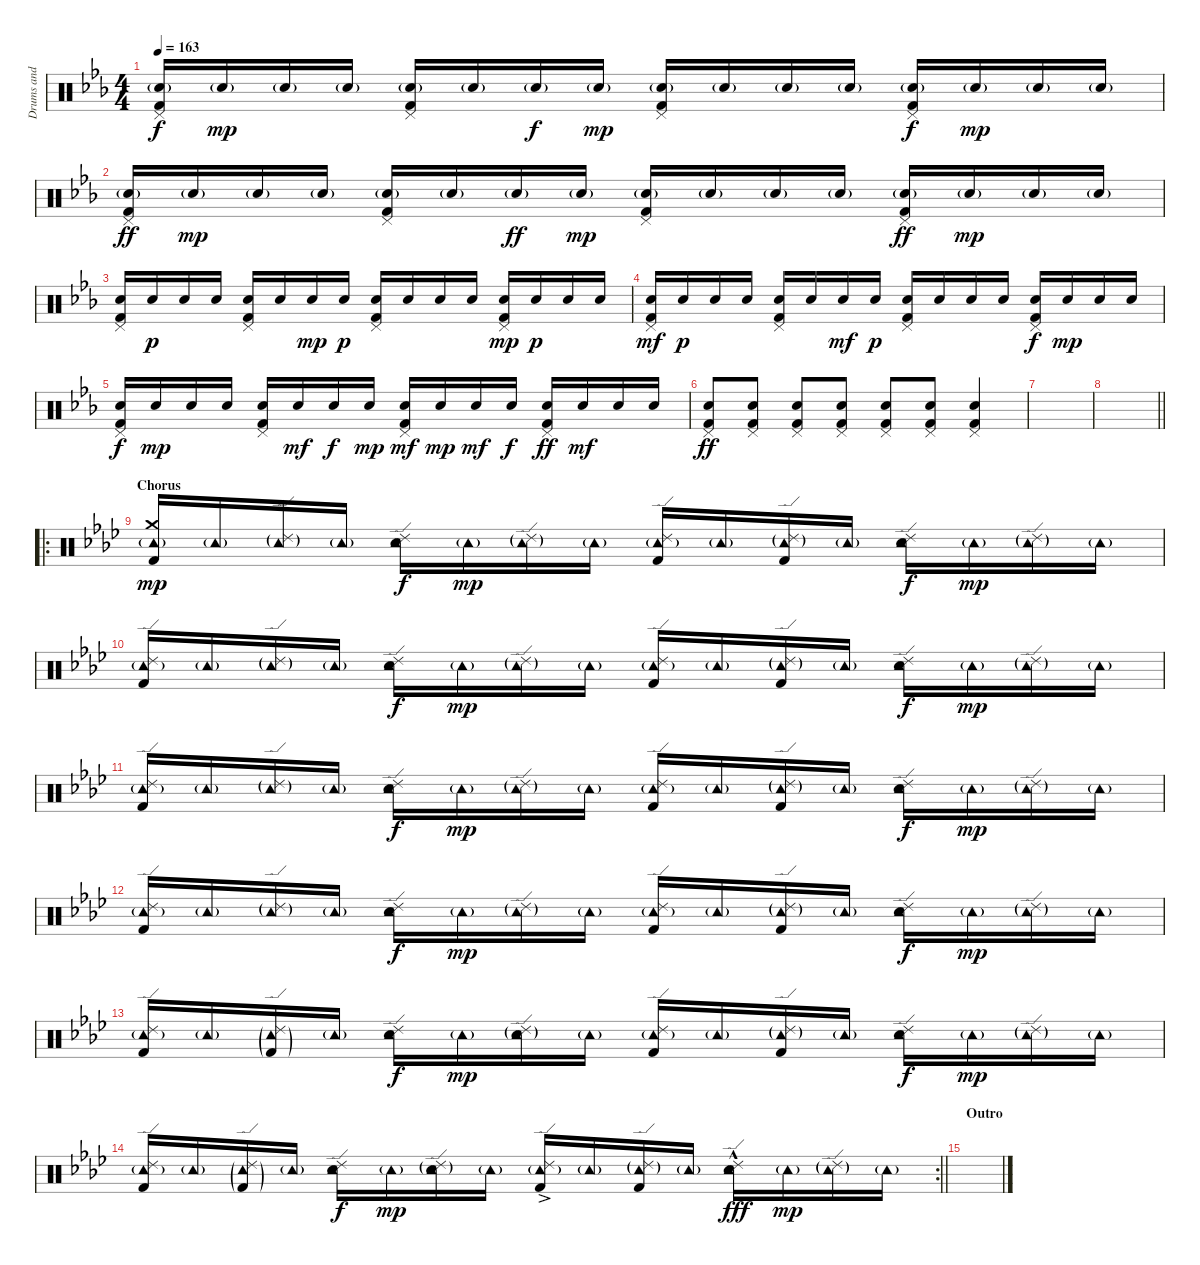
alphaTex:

\track ("Drums and Perc." "Drums and ") {instrument percussion}
\staff {score}
\articulation defaults
\ts (4 4)
\tempo 163
\clef neutral
\ks cminor
("Pedal Hi-Hat (hit)" "Electric Snare (hit)"{g} "Kick (hit) 2").16{dy f} "Electric Snare (hit)"{g}.16{dy mp} "Electric Snare (hit)"{g}.16 "Electric Snare (hit)"{g}.16 ("Pedal Hi-Hat (hit)" "Electric Snare (hit)"{g} "Kick (hit) 2").16 "Electric Snare (hit)"{g}.16 "Electric Snare (hit)"{g}.16{dy f} "Electric Snare (hit)"{g}.16{dy mp} ("Pedal Hi-Hat (hit)" "Electric Snare (hit)"{g} "Kick (hit) 2").16 "Electric Snare (hit)"{g}.16 "Electric Snare (hit)"{g}.16 "Electric Snare (hit)"{g}.16 ("Pedal Hi-Hat (hit)" "Electric Snare (hit)"{g} "Kick (hit) 2").16{dy f} "Electric Snare (hit)"{g}.16{dy mp} "Electric Snare (hit)"{g}.16 "Electric Snare (hit)"{g}.16 |
("Pedal Hi-Hat (hit)" "Electric Snare (hit)"{g} "Kick (hit) 2").16{dy ff} "Electric Snare (hit)"{g}.16{dy mp} "Electric Snare (hit)"{g}.16 "Electric Snare (hit)"{g}.16 ("Pedal Hi-Hat (hit)" "Electric Snare (hit)"{g} "Kick (hit) 2").16 "Electric Snare (hit)"{g}.16 "Electric Snare (hit)"{g}.16{dy ff} "Electric Snare (hit)"{g}.16{dy mp} ("Pedal Hi-Hat (hit)" "Electric Snare (hit)"{g} "Kick (hit) 2").16 "Electric Snare (hit)"{g}.16 "Electric Snare (hit)"{g}.16 "Electric Snare (hit)"{g}.16 ("Pedal Hi-Hat (hit)" "Electric Snare (hit)"{g} "Kick (hit) 2").16{dy ff} "Electric Snare (hit)"{g}.16{dy mp} "Electric Snare (hit)"{g}.16 "Electric Snare (hit)"{g}.16 |
("Pedal Hi-Hat (hit)" "Electric Snare (hit)" "Kick (hit) 2").16 "Electric Snare (hit)".16{dy p} "Electric Snare (hit)".16 "Electric Snare (hit)".16 ("Pedal Hi-Hat (hit)" "Electric Snare (hit)" "Kick (hit) 2").16 "Electric Snare (hit)".16 "Electric Snare (hit)".16{dy mp} "Electric Snare (hit)".16{dy p} ("Pedal Hi-Hat (hit)" "Electric Snare (hit)" "Kick (hit) 2").16 "Electric Snare (hit)".16 "Electric Snare (hit)".16 "Electric Snare (hit)".16 ("Pedal Hi-Hat (hit)" "Electric Snare (hit)" "Kick (hit) 2").16{dy mp} "Electric Snare (hit)".16{dy p} "Electric Snare (hit)".16 "Electric Snare (hit)".16 |
("Pedal Hi-Hat (hit)" "Electric Snare (hit)" "Kick (hit) 2").16{dy mf} "Electric Snare (hit)".16{dy p} "Electric Snare (hit)".16 "Electric Snare (hit)".16 ("Pedal Hi-Hat (hit)" "Electric Snare (hit)" "Kick (hit) 2").16 "Electric Snare (hit)".16 "Electric Snare (hit)".16{dy mf} "Electric Snare (hit)".16{dy p} ("Pedal Hi-Hat (hit)" "Electric Snare (hit)" "Kick (hit) 2").16 "Electric Snare (hit)".16 "Electric Snare (hit)".16 "Electric Snare (hit)".16 ("Pedal Hi-Hat (hit)" "Electric Snare (hit)" "Kick (hit) 2").16{dy f} "Electric Snare (hit)".16{dy mp} "Electric Snare (hit)".16 "Electric Snare (hit)".16 |
("Pedal Hi-Hat (hit)" "Electric Snare (hit)" "Kick (hit) 2").16{dy f} "Electric Snare (hit)".16{dy mp} "Electric Snare (hit)".16 "Electric Snare (hit)".16 ("Pedal Hi-Hat (hit)" "Electric Snare (hit)" "Kick (hit) 2").16 "Electric Snare (hit)".16{dy mf} "Electric Snare (hit)".16{dy f} "Electric Snare (hit)".16{dy mp} ("Pedal Hi-Hat (hit)" "Electric Snare (hit)" "Kick (hit) 2").16{dy mf} "Electric Snare (hit)".16{dy mp} "Electric Snare (hit)".16{dy mf} "Electric Snare (hit)".16{dy f} ("Pedal Hi-Hat (hit)" "Electric Snare (hit)" "Kick (hit) 2").16{dy ff} "Electric Snare (hit)".16{dy mf} "Electric Snare (hit)".16 "Electric Snare (hit)".16 |
("Pedal Hi-Hat (hit)" "Electric Snare (hit)" "Kick (hit) 2").8{dy ff} ("Pedal Hi-Hat (hit)" "Electric Snare (hit)" "Kick (hit) 2").8 ("Pedal Hi-Hat (hit)" "Electric Snare (hit)" "Kick (hit) 2").8 ("Pedal Hi-Hat (hit)" "Electric Snare (hit)" "Kick (hit) 2").8 ("Pedal Hi-Hat (hit)" "Electric Snare (hit)" "Kick (hit) 2").8 ("Pedal Hi-Hat (hit)" "Electric Snare (hit)" "Kick (hit) 2").8 ("Pedal Hi-Hat (hit)" "Electric Snare (hit)" "Kick (hit) 2").4 |
|
\barLineRight lightlight
|
\ro
\section ("" "Chorus")
\ks fminor
("Crash medium (hit)" "Tambourine (hit)"{g} "Kick (hit) 2").16{dy mp} "Tambourine (hit)"{g}.16 ("Ride (edge) 2"{g} "Tambourine (hit)"{g}).16 "Tambourine (hit)"{g}.16 ("Ride (edge) 2" "Tambourine (hit)" "Snare (hit) 2").16{dy f} "Tambourine (hit)"{g}.16{dy mp} ("Ride (edge) 2"{g} "Tambourine (hit)"{g}).16 "Tambourine (hit)"{g}.16 ("Ride (edge) 2" "Tambourine (hit)"{g} "Kick (hit) 2").16 "Tambourine (hit)"{g}.16 ("Ride (edge) 2"{g} "Tambourine (hit)"{g} "Kick (hit) 2").16 "Tambourine (hit)"{g}.16 ("Ride (edge) 2" "Tambourine (hit)" "Snare (hit) 2").16{dy f} "Tambourine (hit)"{g}.16{dy mp} ("Ride (edge) 2"{g} "Tambourine (hit)"{g}).16 "Tambourine (hit)"{g}.16 |
("Ride (edge) 2" "Tambourine (hit)"{g} "Kick (hit) 2").16 "Tambourine (hit)"{g}.16 ("Ride (edge) 2"{g} "Tambourine (hit)"{g}).16 "Tambourine (hit)"{g}.16 ("Ride (edge) 2" "Tambourine (hit)" "Snare (hit) 2").16{dy f} "Tambourine (hit)"{g}.16{dy mp} ("Ride (edge) 2"{g} "Tambourine (hit)"{g}).16 "Tambourine (hit)"{g}.16 ("Ride (edge) 2" "Tambourine (hit)"{g} "Kick (hit) 2").16 "Tambourine (hit)"{g}.16 ("Ride (edge) 2"{g} "Tambourine (hit)"{g} "Kick (hit) 2").16 "Tambourine (hit)"{g}.16 ("Ride (edge) 2" "Tambourine (hit)" "Snare (hit) 2").16{dy f} "Tambourine (hit)"{g}.16{dy mp} ("Ride (edge) 2"{g} "Tambourine (hit)"{g}).16 "Tambourine (hit)"{g}.16 |
("Ride (edge) 2" "Tambourine (hit)"{g} "Kick (hit) 2").16 "Tambourine (hit)"{g}.16 ("Ride (edge) 2"{g} "Tambourine (hit)"{g}).16 "Tambourine (hit)"{g}.16 ("Ride (edge) 2" "Tambourine (hit)" "Snare (hit) 2").16{dy f} "Tambourine (hit)"{g}.16{dy mp} ("Ride (edge) 2"{g} "Tambourine (hit)"{g}).16 "Tambourine (hit)"{g}.16 ("Ride (edge) 2" "Tambourine (hit)"{g} "Kick (hit) 2").16 "Tambourine (hit)"{g}.16 ("Ride (edge) 2"{g} "Tambourine (hit)"{g} "Kick (hit) 2").16 "Tambourine (hit)"{g}.16 ("Ride (edge) 2" "Tambourine (hit)" "Snare (hit) 2").16{dy f} "Tambourine (hit)"{g}.16{dy mp} ("Ride (edge) 2"{g} "Tambourine (hit)"{g}).16 "Tambourine (hit)"{g}.16 |
("Ride (edge) 2" "Tambourine (hit)"{g} "Kick (hit) 2").16 "Tambourine (hit)"{g}.16 ("Ride (edge) 2"{g} "Tambourine (hit)"{g}).16 "Tambourine (hit)"{g}.16 ("Ride (edge) 2" "Tambourine (hit)" "Snare (hit) 2").16{dy f} "Tambourine (hit)"{g}.16{dy mp} ("Ride (edge) 2"{g} "Tambourine (hit)"{g}).16 "Tambourine (hit)"{g}.16 ("Ride (edge) 2" "Tambourine (hit)"{g} "Kick (hit) 2").16 "Tambourine (hit)"{g}.16 ("Ride (edge) 2"{g} "Tambourine (hit)"{g} "Kick (hit) 2").16 "Tambourine (hit)"{g}.16 ("Ride (edge) 2" "Tambourine (hit)" "Snare (hit) 2").16{dy f} "Tambourine (hit)"{g}.16{dy mp} ("Ride (edge) 2"{g} "Tambourine (hit)"{g}).16 "Tambourine (hit)"{g}.16 |
("Ride (edge) 2" "Tambourine (hit)"{g} "Kick (hit) 2").16 "Tambourine (hit)"{g}.16 ("Ride (edge) 2"{g} "Tambourine (hit)"{g} "Kick (hit) 2"{g}).16 "Tambourine (hit)"{g}.16 ("Ride (edge) 2" "Tambourine (hit)" "Snare (hit) 2").16{dy f} "Tambourine (hit)"{g}.16{dy mp} ("Ride (edge) 2"{g} "Tambourine (hit)"{g} "Snare (hit) 2").16 "Tambourine (hit)"{g}.16 ("Ride (edge) 2" "Tambourine (hit)"{g} "Kick (hit) 2").16 "Tambourine (hit)"{g}.16 ("Ride (edge) 2"{g} "Tambourine (hit)"{g} "Kick (hit) 2").16 "Tambourine (hit)"{g}.16 ("Ride (edge) 2" "Tambourine (hit)" "Snare (hit) 2").16{dy f} "Tambourine (hit)"{g}.16{dy mp} ("Ride (edge) 2"{g} "Tambourine (hit)"{g}).16 "Tambourine (hit)"{g}.16 |
\rc 2
\barLineRight lightlight
("Ride (edge) 2" "Tambourine (hit)"{g} "Kick (hit) 2").16 "Tambourine (hit)"{g}.16 ("Ride (edge) 2"{g} "Tambourine (hit)"{g} "Kick (hit) 2"{g}).16 "Tambourine (hit)"{g}.16 ("Ride (edge) 2" "Tambourine (hit)" "Snare (hit) 2").16{dy f} "Tambourine (hit)"{g}.16{dy mp} ("Ride (edge) 2"{g} "Tambourine (hit)"{g} "Snare (hit) 2").16 "Tambourine (hit)"{g}.16 ("Ride (edge) 2"{ac} "Tambourine (hit)"{g} "Kick (hit) 2").16 "Tambourine (hit)"{g}.16 ("Ride (edge) 2"{g} "Tambourine (hit)"{g} "Kick (hit) 2").16 "Tambourine (hit)"{g}.16 ("Ride (edge) 2"{hac} "Tambourine (hit)" "Snare (hit) 2").16{dy fff} "Tambourine (hit)"{g}.16{dy mp} ("Ride (edge) 2"{g} "Tambourine (hit)"{g}).16 "Tambourine (hit)"{g}.16 |
\section ("" "Outro")
